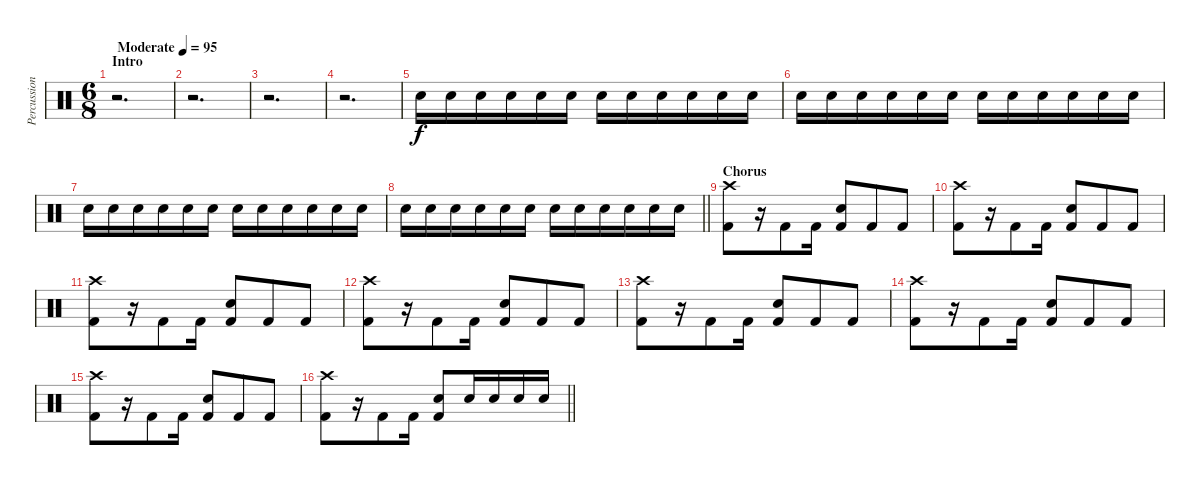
\track ("Percussion" "Percussion") {instrument percussion}
\staff {score}
\articulation defaults
\ts (6 8)
\section ("" "Intro")
\tempo (95 "Moderate")
\clef neutral
\ks c
r.2{d dy f} |
r.2{d} |
r.2{d} |
r.2{d} |
"Snare (hit) 2".16 "Snare (hit) 2".16 "Snare (hit) 2".16 "Snare (hit) 2".16 "Snare (hit) 2".16 "Snare (hit) 2".16 "Snare (hit) 2".16 "Snare (hit) 2".16 "Snare (hit) 2".16 "Snare (hit) 2".16 "Snare (hit) 2".16 "Snare (hit) 2".16 |
"Snare (hit) 2".16 "Snare (hit) 2".16 "Snare (hit) 2".16 "Snare (hit) 2".16 "Snare (hit) 2".16 "Snare (hit) 2".16 "Snare (hit) 2".16 "Snare (hit) 2".16 "Snare (hit) 2".16 "Snare (hit) 2".16 "Snare (hit) 2".16 "Snare (hit) 2".16 |
"Snare (hit) 2".16 "Snare (hit) 2".16 "Snare (hit) 2".16 "Snare (hit) 2".16 "Snare (hit) 2".16 "Snare (hit) 2".16 "Snare (hit) 2".16 "Snare (hit) 2".16 "Snare (hit) 2".16 "Snare (hit) 2".16 "Snare (hit) 2".16 "Snare (hit) 2".16 |
\barLineRight lightlight "Snare (hit) 2".16 "Snare (hit) 2".16 "Snare (hit) 2".16 "Snare (hit) 2".16 "Snare (hit) 2".16 "Snare (hit) 2".16 "Snare (hit) 2".16 "Snare (hit) 2".16 "Snare (hit) 2".16 "Snare (hit) 2".16 "Snare (hit) 2".16 "Snare (hit) 2".16
|
\section ("" "Chorus")
("Crash high (hit)" "Kick (hit) 2").8 r.16 "Kick (hit) 2".8 "Kick (hit) 2".16 ("Snare (hit) 2" "Kick (hit) 2").8 "Kick (hit) 2".8 "Kick (hit) 2".8 |
("Crash high (hit)" "Kick (hit) 2").8 r.16 "Kick (hit) 2".8 "Kick (hit) 2".16 ("Snare (hit) 2" "Kick (hit) 2").8 "Kick (hit) 2".8 "Kick (hit) 2".8 |
("Crash high (hit)" "Kick (hit) 2").8 r.16 "Kick (hit) 2".8 "Kick (hit) 2".16 ("Snare (hit) 2" "Kick (hit) 2").8 "Kick (hit) 2".8 "Kick (hit) 2".8 |
("Crash high (hit)" "Kick (hit) 2").8 r.16 "Kick (hit) 2".8 "Kick (hit) 2".16 ("Snare (hit) 2" "Kick (hit) 2").8 "Kick (hit) 2".8 "Kick (hit) 2".8 |
("Crash high (hit)" "Kick (hit) 2").8 r.16 "Kick (hit) 2".8 "Kick (hit) 2".16 ("Snare (hit) 2" "Kick (hit) 2").8 "Kick (hit) 2".8 "Kick (hit) 2".8 |
("Crash high (hit)" "Kick (hit) 2").8 r.16 "Kick (hit) 2".8 "Kick (hit) 2".16 ("Snare (hit) 2" "Kick (hit) 2").8 "Kick (hit) 2".8 "Kick (hit) 2".8 |
("Crash high (hit)" "Kick (hit) 2").8 r.16 "Kick (hit) 2".8 "Kick (hit) 2".16 ("Snare (hit) 2" "Kick (hit) 2").8 "Kick (hit) 2".8 "Kick (hit) 2".8 |
\barLineRight lightlight
("Crash high (hit)" "Kick (hit) 2").8 r.16 "Kick (hit) 2".8 "Kick (hit) 2".16 ("Snare (hit) 2" "Kick (hit) 2").8 "Snare (hit) 2".16 "Snare (hit) 2".16 "Snare (hit) 2".16 "Snare (hit) 2".16
